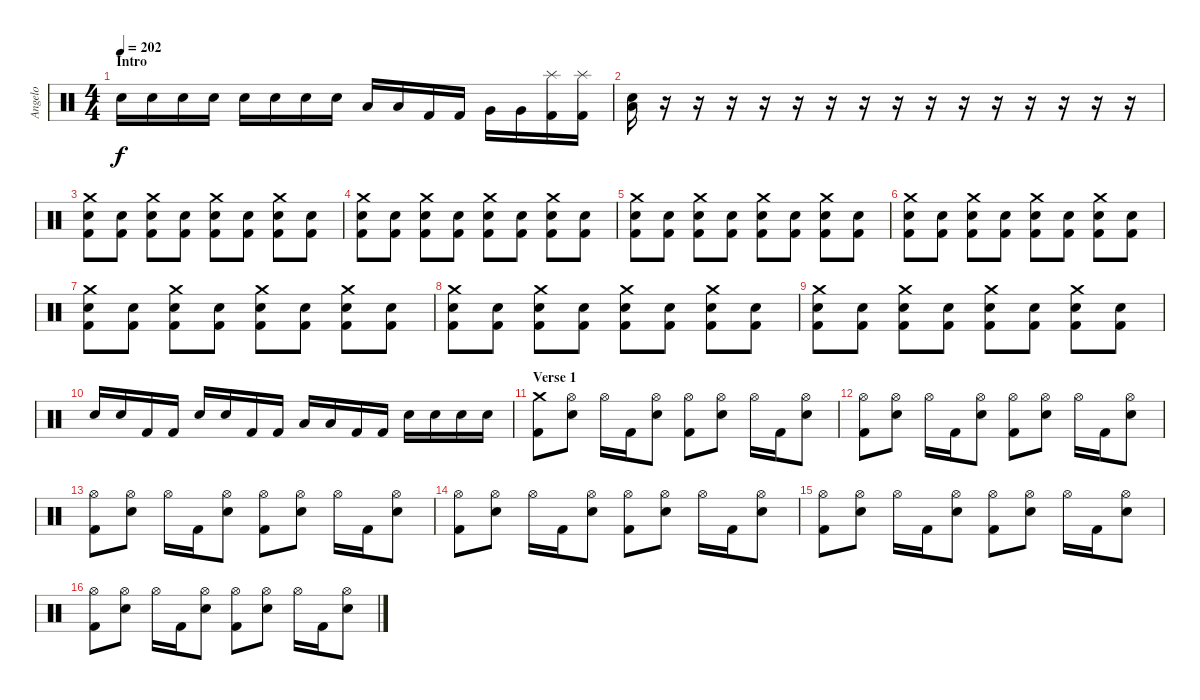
\track ("Angelo" "Angelo") {instrument percussion}
\staff {score}
\articulation defaults
\ts (4 4)
\section ("" "Intro")
\tempo 202
\clef neutral
\ks c "Electric Snare (hit)".16{dy f} "Electric Snare (hit)".16 "Electric Snare (hit)".16 "Electric Snare (hit)".16 "Electric Snare (hit)".16 "Electric Snare (hit)".16 "Electric Snare (hit)".16 "Electric Snare (hit)".16 "Low Tom (hit)".16 "Low Tom (hit)".16 "Kick (hit) 2".16 "Kick (hit) 2".16 "Very Low Tom (hit)".16 "Very Low Tom (hit)".16
("Splash (hit)" "Kick (hit) 2").16 ("Splash (hit)" "Kick (hit) 2").16 |
("Electric Snare (hit)" "Low Floor Tom (hit)").16 r.16 r.16 r.16 r.16 r.16 r.16 r.16 r.16 r.16 r.16 r.16 r.16 r.16 r.16 r.16 |
("Crash medium (hit)" "Electric Snare (hit)" "Kick (hit) 2").8 ("Electric Snare (hit)" "Kick (hit) 2").8 ("Crash medium (hit)" "Electric Snare (hit)" "Kick (hit) 2").8 ("Electric Snare (hit)" "Kick (hit) 2").8 ("Crash medium (hit)" "Electric Snare (hit)" "Kick (hit) 2").8 ("Electric Snare (hit)" "Kick (hit) 2").8 ("Crash medium (hit)" "Electric Snare (hit)" "Kick (hit) 2").8 ("Electric Snare (hit)" "Kick (hit) 2").8 |
("Crash medium (hit)" "Electric Snare (hit)" "Kick (hit) 2").8 ("Electric Snare (hit)" "Kick (hit) 2").8 ("Crash medium (hit)" "Electric Snare (hit)" "Kick (hit) 2").8 ("Electric Snare (hit)" "Kick (hit) 2").8 ("Crash medium (hit)" "Electric Snare (hit)" "Kick (hit) 2").8 ("Electric Snare (hit)" "Kick (hit) 2").8 ("Crash medium (hit)" "Electric Snare (hit)" "Kick (hit) 2").8 ("Electric Snare (hit)" "Kick (hit) 2").8 |
("Crash medium (hit)" "Electric Snare (hit)" "Kick (hit) 2").8 ("Electric Snare (hit)" "Kick (hit) 2").8 ("Crash medium (hit)" "Electric Snare (hit)" "Kick (hit) 2").8 ("Electric Snare (hit)" "Kick (hit) 2").8 ("Crash medium (hit)" "Electric Snare (hit)" "Kick (hit) 2").8 ("Electric Snare (hit)" "Kick (hit) 2").8 ("Crash medium (hit)" "Electric Snare (hit)" "Kick (hit) 2").8 ("Electric Snare (hit)" "Kick (hit) 2").8 |
("Crash medium (hit)" "Electric Snare (hit)" "Kick (hit) 2").8 ("Electric Snare (hit)" "Kick (hit) 2").8 ("Crash medium (hit)" "Electric Snare (hit)" "Kick (hit) 2").8 ("Electric Snare (hit)" "Kick (hit) 2").8 ("Crash medium (hit)" "Electric Snare (hit)" "Kick (hit) 2").8 ("Electric Snare (hit)" "Kick (hit) 2").8 ("Crash medium (hit)" "Electric Snare (hit)" "Kick (hit) 2").8 ("Electric Snare (hit)" "Kick (hit) 2").8 |
("Crash medium (hit)" "Electric Snare (hit)" "Kick (hit) 2").8 ("Electric Snare (hit)" "Kick (hit) 2").8 ("Crash medium (hit)" "Electric Snare (hit)" "Kick (hit) 2").8 ("Electric Snare (hit)" "Kick (hit) 2").8 ("Crash medium (hit)" "Electric Snare (hit)" "Kick (hit) 2").8 ("Electric Snare (hit)" "Kick (hit) 2").8 ("Crash medium (hit)" "Electric Snare (hit)" "Kick (hit) 2").8 ("Electric Snare (hit)" "Kick (hit) 2").8 |
("Crash medium (hit)" "Electric Snare (hit)" "Kick (hit) 2").8 ("Electric Snare (hit)" "Kick (hit) 2").8 ("Crash medium (hit)" "Electric Snare (hit)" "Kick (hit) 2").8 ("Electric Snare (hit)" "Kick (hit) 2").8 ("Crash medium (hit)" "Electric Snare (hit)" "Kick (hit) 2").8 ("Electric Snare (hit)" "Kick (hit) 2").8 ("Crash medium (hit)" "Electric Snare (hit)" "Kick (hit) 2").8 ("Electric Snare (hit)" "Kick (hit) 2").8 |
("Crash medium (hit)" "Electric Snare (hit)" "Kick (hit) 2").8 ("Electric Snare (hit)" "Kick (hit) 2").8 ("Crash medium (hit)" "Electric Snare (hit)" "Kick (hit) 2").8 ("Electric Snare (hit)" "Kick (hit) 2").8 ("Crash medium (hit)" "Electric Snare (hit)" "Kick (hit) 2").8 ("Electric Snare (hit)" "Kick (hit) 2").8 ("Crash medium (hit)" "Electric Snare (hit)" "Kick (hit) 2").8 ("Electric Snare (hit)" "Kick (hit) 2").8 |
"Electric Snare (hit)".16 "Electric Snare (hit)".16 "Kick (hit) 2".16 "Kick (hit) 2".16 "Electric Snare (hit)".16 "Electric Snare (hit)".16 "Kick (hit) 2".16 "Kick (hit) 2".16 "Low Tom (hit)".16 "Low Tom (hit)".16 "Kick (hit) 2".16 "Kick (hit) 2".16 "Electric Snare (hit)".16 "Electric Snare (hit)".16 "Electric Snare (hit)".16 "Electric Snare (hit)".16 |
\section ("" "Verse 1")
("Crash medium (hit)" "Kick (hit) 2").8 ("Hi-Hat (open)" "Electric Snare (hit)").8 "Hi-Hat (open)".16 "Kick (hit) 2".16 ("Hi-Hat (open)" "Electric Snare (hit)").8 ("Hi-Hat (open)" "Kick (hit) 2").8 ("Hi-Hat (open)" "Electric Snare (hit)").8 "Hi-Hat (open)".16 "Kick (hit) 2".16 ("Hi-Hat (open)" "Electric Snare (hit)").8 |
("Hi-Hat (open)" "Kick (hit) 2").8 ("Hi-Hat (open)" "Electric Snare (hit)").8 "Hi-Hat (open)".16 "Kick (hit) 2".16 ("Hi-Hat (open)" "Electric Snare (hit)").8 ("Hi-Hat (open)" "Kick (hit) 2").8 ("Hi-Hat (open)" "Electric Snare (hit)").8 "Hi-Hat (open)".16 "Kick (hit) 2".16 ("Hi-Hat (open)" "Electric Snare (hit)").8 |
("Hi-Hat (open)" "Kick (hit) 2").8 ("Hi-Hat (open)" "Electric Snare (hit)").8 "Hi-Hat (open)".16 "Kick (hit) 2".16 ("Hi-Hat (open)" "Electric Snare (hit)").8 ("Hi-Hat (open)" "Kick (hit) 2").8 ("Hi-Hat (open)" "Electric Snare (hit)").8 "Hi-Hat (open)".16 "Kick (hit) 2".16 ("Hi-Hat (open)" "Electric Snare (hit)").8 |
("Hi-Hat (open)" "Kick (hit) 2").8 ("Hi-Hat (open)" "Electric Snare (hit)").8 "Hi-Hat (open)".16 "Kick (hit) 2".16 ("Hi-Hat (open)" "Electric Snare (hit)").8 ("Hi-Hat (open)" "Kick (hit) 2").8 ("Hi-Hat (open)" "Electric Snare (hit)").8 "Hi-Hat (open)".16 "Kick (hit) 2".16 ("Hi-Hat (open)" "Electric Snare (hit)").8 |
("Hi-Hat (open)" "Kick (hit) 2").8 ("Hi-Hat (open)" "Electric Snare (hit)").8 "Hi-Hat (open)".16 "Kick (hit) 2".16 ("Hi-Hat (open)" "Electric Snare (hit)").8 ("Hi-Hat (open)" "Kick (hit) 2").8 ("Hi-Hat (open)" "Electric Snare (hit)").8 "Hi-Hat (open)".16 "Kick (hit) 2".16 ("Hi-Hat (open)" "Electric Snare (hit)").8 |
("Hi-Hat (open)" "Kick (hit) 2").8 ("Hi-Hat (open)" "Electric Snare (hit)").8 "Hi-Hat (open)".16 "Kick (hit) 2".16 ("Hi-Hat (open)" "Electric Snare (hit)").8 ("Hi-Hat (open)" "Kick (hit) 2").8 ("Hi-Hat (open)" "Electric Snare (hit)").8 "Hi-Hat (open)".16 "Kick (hit) 2".16 ("Hi-Hat (open)" "Electric Snare (hit)").8
